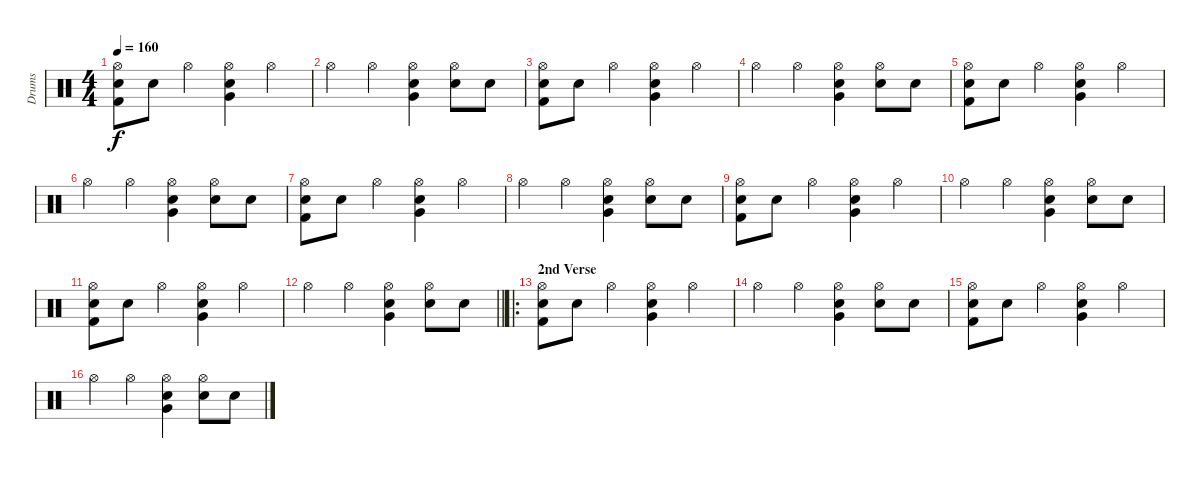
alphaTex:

\track ("Drums" "Drums") {instrument percussion}
\staff {score}
\articulation defaults
\ts (4 4)
\tempo 160
\clef neutral
\ks c
("Hi-Hat (open)" "Electric Snare (hit)" "Kick (hit) 2").8{dy f} "Electric Snare (hit)".8 "Hi-Hat (open)".4 ("Hi-Hat (open)" "Electric Snare (hit)" "Very Low Tom (hit)").4 "Hi-Hat (open)".4 |
"Hi-Hat (open)".4 "Hi-Hat (open)".4 ("Hi-Hat (open)" "Electric Snare (hit)" "Very Low Tom (hit)").4 ("Hi-Hat (open)" "Snare (hit) 2").8 "Electric Snare (hit)".8 |
("Hi-Hat (open)" "Electric Snare (hit)" "Kick (hit) 2").8 "Electric Snare (hit)".8 "Hi-Hat (open)".4 ("Hi-Hat (open)" "Electric Snare (hit)" "Very Low Tom (hit)").4 "Hi-Hat (open)".4 |
"Hi-Hat (open)".4 "Hi-Hat (open)".4 ("Hi-Hat (open)" "Electric Snare (hit)" "Very Low Tom (hit)").4 ("Hi-Hat (open)" "Snare (hit) 2").8 "Electric Snare (hit)".8 |
("Hi-Hat (open)" "Electric Snare (hit)" "Kick (hit) 2").8 "Electric Snare (hit)".8 "Hi-Hat (open)".4 ("Hi-Hat (open)" "Electric Snare (hit)" "Very Low Tom (hit)").4 "Hi-Hat (open)".4 |
"Hi-Hat (open)".4 "Hi-Hat (open)".4 ("Hi-Hat (open)" "Electric Snare (hit)" "Very Low Tom (hit)").4 ("Hi-Hat (open)" "Snare (hit) 2").8 "Electric Snare (hit)".8 |
("Hi-Hat (open)" "Electric Snare (hit)" "Kick (hit) 2").8 "Electric Snare (hit)".8 "Hi-Hat (open)".4 ("Hi-Hat (open)" "Electric Snare (hit)" "Very Low Tom (hit)").4 "Hi-Hat (open)".4 |
"Hi-Hat (open)".4 "Hi-Hat (open)".4 ("Hi-Hat (open)" "Electric Snare (hit)" "Very Low Tom (hit)").4 ("Hi-Hat (open)" "Snare (hit) 2").8 "Electric Snare (hit)".8 |
("Hi-Hat (open)" "Electric Snare (hit)" "Kick (hit) 2").8 "Electric Snare (hit)".8 "Hi-Hat (open)".4 ("Hi-Hat (open)" "Electric Snare (hit)" "Very Low Tom (hit)").4 "Hi-Hat (open)".4 |
"Hi-Hat (open)".4 "Hi-Hat (open)".4 ("Hi-Hat (open)" "Electric Snare (hit)" "Very Low Tom (hit)").4 ("Hi-Hat (open)" "Snare (hit) 2").8 "Electric Snare (hit)".8 |
("Hi-Hat (open)" "Electric Snare (hit)" "Kick (hit) 2").8 "Electric Snare (hit)".8 "Hi-Hat (open)".4 ("Hi-Hat (open)" "Electric Snare (hit)" "Very Low Tom (hit)").4 "Hi-Hat (open)".4 |
\barLineRight lightlight "Hi-Hat (open)".4 "Hi-Hat (open)".4
("Hi-Hat (open)" "Electric Snare (hit)" "Very Low Tom (hit)").4 ("Hi-Hat (open)" "Snare (hit) 2").8 "Electric Snare (hit)".8 |
\ro
\section ("" "2nd Verse")
("Hi-Hat (open)" "Electric Snare (hit)" "Kick (hit) 2").8 "Electric Snare (hit)".8 "Hi-Hat (open)".4 ("Hi-Hat (open)" "Electric Snare (hit)" "Very Low Tom (hit)").4 "Hi-Hat (open)".4 |
"Hi-Hat (open)".4 "Hi-Hat (open)".4 ("Hi-Hat (open)" "Electric Snare (hit)" "Very Low Tom (hit)").4 ("Hi-Hat (open)" "Snare (hit) 2").8 "Electric Snare (hit)".8 |
("Hi-Hat (open)" "Electric Snare (hit)" "Kick (hit) 2").8 "Electric Snare (hit)".8 "Hi-Hat (open)".4 ("Hi-Hat (open)" "Electric Snare (hit)" "Very Low Tom (hit)").4 "Hi-Hat (open)".4 |
"Hi-Hat (open)".4 "Hi-Hat (open)".4 ("Hi-Hat (open)" "Electric Snare (hit)" "Very Low Tom (hit)").4 ("Hi-Hat (open)" "Snare (hit) 2").8 "Electric Snare (hit)".8
